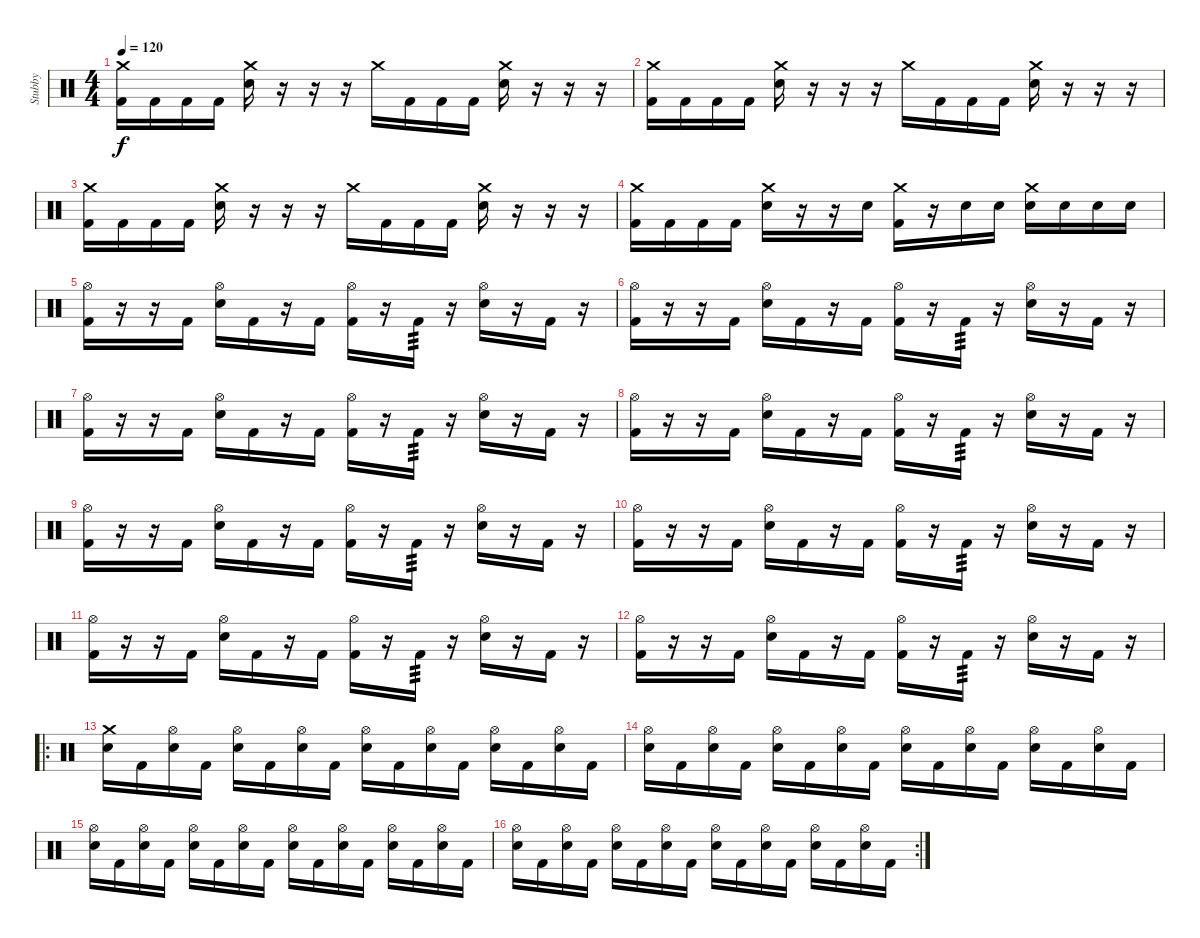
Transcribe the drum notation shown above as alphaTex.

\track ("Stubby" "Stubby") {instrument percussion}
\staff {score}
\articulation defaults
\ts (4 4)
\tempo 120
\clef neutral
\ks c
("Crash medium (hit)" "Kick (hit) 2").16{dy f} "Kick (hit) 2".16 "Kick (hit) 2".16 "Kick (hit) 2".16 ("Crash medium (hit)" "Electric Snare (hit)").16 r.16 r.16 r.16 "Crash medium (hit)".16 "Kick (hit) 2".16 "Kick (hit) 2".16 "Kick (hit) 2".16 ("Crash medium (hit)" "Electric Snare (hit)").16 r.16 r.16 r.16 |
("Crash medium (hit)" "Kick (hit) 2").16 "Kick (hit) 2".16 "Kick (hit) 2".16 "Kick (hit) 2".16 ("Crash medium (hit)" "Electric Snare (hit)").16 r.16 r.16 r.16 "Crash medium (hit)".16 "Kick (hit) 2".16 "Kick (hit) 2".16 "Kick (hit) 2".16 ("Crash medium (hit)" "Electric Snare (hit)").16 r.16 r.16 r.16 |
("Crash medium (hit)" "Kick (hit) 2").16 "Kick (hit) 2".16 "Kick (hit) 2".16 "Kick (hit) 2".16 ("Crash medium (hit)" "Electric Snare (hit)").16 r.16 r.16 r.16 "Crash medium (hit)".16 "Kick (hit) 2".16 "Kick (hit) 2".16 "Kick (hit) 2".16 ("Crash medium (hit)" "Electric Snare (hit)").16 r.16 r.16 r.16 |
("Crash medium (hit)" "Kick (hit) 2").16 "Kick (hit) 2".16 "Kick (hit) 2".16 "Kick (hit) 2".16 ("Crash medium (hit)" "Electric Snare (hit)").16 r.16 r.16 "Electric Snare (hit)".16 ("Crash medium (hit)" "Kick (hit) 2").16 r.16 "Electric Snare (hit)".16 "Electric Snare (hit)".16 ("Crash medium (hit)" "Electric Snare (hit)").16 "Electric Snare (hit)".16 "Electric Snare (hit)".16 "Electric Snare (hit)".16 |
("Hi-Hat (open)" "Kick (hit) 2").16 r.16 r.16 "Kick (hit) 2".16 ("Hi-Hat (open)" "Electric Snare (hit)").16 "Kick (hit) 2".16 r.16 "Kick (hit) 2".16 ("Hi-Hat (open)" "Kick (hit) 2").16 r.16 "Kick (hit) 2".16{tp 3} r.16 ("Hi-Hat (open)" "Electric Snare (hit)").16 r.16 "Kick (hit) 2".16 r.16 |
("Hi-Hat (open)" "Kick (hit) 2").16 r.16 r.16 "Kick (hit) 2".16 ("Hi-Hat (open)" "Electric Snare (hit)").16 "Kick (hit) 2".16 r.16 "Kick (hit) 2".16 ("Hi-Hat (open)" "Kick (hit) 2").16 r.16 "Kick (hit) 2".16{tp 3} r.16 ("Hi-Hat (open)" "Electric Snare (hit)").16 r.16 "Kick (hit) 2".16 r.16 |
("Hi-Hat (open)" "Kick (hit) 2").16 r.16 r.16 "Kick (hit) 2".16 ("Hi-Hat (open)" "Electric Snare (hit)").16 "Kick (hit) 2".16 r.16 "Kick (hit) 2".16 ("Hi-Hat (open)" "Kick (hit) 2").16 r.16 "Kick (hit) 2".16{tp 3} r.16 ("Hi-Hat (open)" "Electric Snare (hit)").16 r.16 "Kick (hit) 2".16 r.16 |
("Hi-Hat (open)" "Kick (hit) 2").16 r.16 r.16 "Kick (hit) 2".16 ("Hi-Hat (open)" "Electric Snare (hit)").16 "Kick (hit) 2".16 r.16 "Kick (hit) 2".16 ("Hi-Hat (open)" "Kick (hit) 2").16 r.16 "Kick (hit) 2".16{tp 3} r.16 ("Hi-Hat (open)" "Electric Snare (hit)").16 r.16 "Kick (hit) 2".16 r.16 |
("Hi-Hat (open)" "Kick (hit) 2").16 r.16 r.16 "Kick (hit) 2".16 ("Hi-Hat (open)" "Electric Snare (hit)").16 "Kick (hit) 2".16 r.16 "Kick (hit) 2".16 ("Hi-Hat (open)" "Kick (hit) 2").16 r.16 "Kick (hit) 2".16{tp 3} r.16 ("Hi-Hat (open)" "Electric Snare (hit)").16 r.16 "Kick (hit) 2".16 r.16 |
("Hi-Hat (open)" "Kick (hit) 2").16 r.16 r.16 "Kick (hit) 2".16 ("Hi-Hat (open)" "Electric Snare (hit)").16 "Kick (hit) 2".16 r.16 "Kick (hit) 2".16 ("Hi-Hat (open)" "Kick (hit) 2").16 r.16 "Kick (hit) 2".16{tp 3} r.16 ("Hi-Hat (open)" "Electric Snare (hit)").16 r.16 "Kick (hit) 2".16 r.16 |
("Hi-Hat (open)" "Kick (hit) 2").16 r.16 r.16 "Kick (hit) 2".16 ("Hi-Hat (open)" "Electric Snare (hit)").16 "Kick (hit) 2".16 r.16 "Kick (hit) 2".16 ("Hi-Hat (open)" "Kick (hit) 2").16 r.16 "Kick (hit) 2".16{tp 3} r.16 ("Hi-Hat (open)" "Electric Snare (hit)").16 r.16 "Kick (hit) 2".16 r.16 |
("Hi-Hat (open)" "Kick (hit) 2").16 r.16 r.16 "Kick (hit) 2".16 ("Hi-Hat (open)" "Electric Snare (hit)").16 "Kick (hit) 2".16 r.16 "Kick (hit) 2".16 ("Hi-Hat (open)" "Kick (hit) 2").16 r.16 "Kick (hit) 2".16{tp 3} r.16 ("Hi-Hat (open)" "Electric Snare (hit)").16 r.16 "Kick (hit) 2".16 r.16 |
\ro
("Crash medium (hit)" "Electric Snare (hit)").16 "Kick (hit) 2".16 ("Hi-Hat (open)" "Electric Snare (hit)").16 "Kick (hit) 2".16 ("Hi-Hat (open)" "Electric Snare (hit)").16 "Kick (hit) 2".16 ("Hi-Hat (open)" "Electric Snare (hit)").16 "Kick (hit) 2".16 ("Hi-Hat (open)" "Electric Snare (hit)").16 "Kick (hit) 2".16 ("Hi-Hat (open)" "Electric Snare (hit)").16 "Kick (hit) 2".16 ("Hi-Hat (open)" "Electric Snare (hit)").16 "Kick (hit) 2".16 ("Hi-Hat (open)" "Electric Snare (hit)").16 "Kick (hit) 2".16 |
("Hi-Hat (open)" "Electric Snare (hit)").16 "Kick (hit) 2".16 ("Hi-Hat (open)" "Electric Snare (hit)").16 "Kick (hit) 2".16 ("Hi-Hat (open)" "Electric Snare (hit)").16 "Kick (hit) 2".16 ("Hi-Hat (open)" "Electric Snare (hit)").16 "Kick (hit) 2".16 ("Hi-Hat (open)" "Electric Snare (hit)").16 "Kick (hit) 2".16 ("Hi-Hat (open)" "Electric Snare (hit)").16 "Kick (hit) 2".16 ("Hi-Hat (open)" "Electric Snare (hit)").16 "Kick (hit) 2".16 ("Hi-Hat (open)" "Electric Snare (hit)").16 "Kick (hit) 2".16 |
("Hi-Hat (open)" "Electric Snare (hit)").16 "Kick (hit) 2".16 ("Hi-Hat (open)" "Electric Snare (hit)").16 "Kick (hit) 2".16 ("Hi-Hat (open)" "Electric Snare (hit)").16 "Kick (hit) 2".16 ("Hi-Hat (open)" "Electric Snare (hit)").16 "Kick (hit) 2".16 ("Hi-Hat (open)" "Electric Snare (hit)").16 "Kick (hit) 2".16 ("Hi-Hat (open)" "Electric Snare (hit)").16 "Kick (hit) 2".16 ("Hi-Hat (open)" "Electric Snare (hit)").16 "Kick (hit) 2".16 ("Hi-Hat (open)" "Electric Snare (hit)").16 "Kick (hit) 2".16 |
\rc 2
("Hi-Hat (open)" "Electric Snare (hit)").16 "Kick (hit) 2".16 ("Hi-Hat (open)" "Electric Snare (hit)").16 "Kick (hit) 2".16 ("Hi-Hat (open)" "Electric Snare (hit)").16 "Kick (hit) 2".16 ("Hi-Hat (open)" "Electric Snare (hit)").16 "Kick (hit) 2".16 ("Hi-Hat (open)" "Electric Snare (hit)").16 "Kick (hit) 2".16 ("Hi-Hat (open)" "Electric Snare (hit)").16 "Kick (hit) 2".16 ("Hi-Hat (open)" "Electric Snare (hit)").16 "Kick (hit) 2".16 ("Hi-Hat (open)" "Electric Snare (hit)").16 "Kick (hit) 2".16
